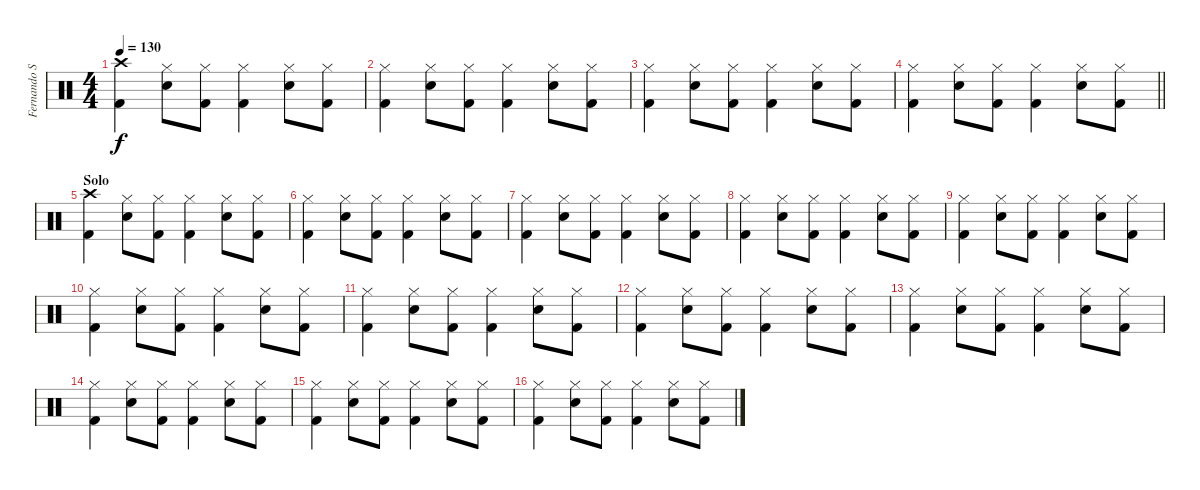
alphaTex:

\track ("Fernando Scarcella" "Fernando S") {instrument percussion}
\staff {score}
\articulation defaults
\ts (4 4)
\tempo 130
\clef neutral
\ks c
("Crash high (hit)" "Kick (hit) 2").4{dy f} ("Hi-Hat (closed)" "Snare (hit) 2").8 ("Hi-Hat (closed)" "Kick (hit) 2").8 ("Hi-Hat (closed)" "Kick (hit) 2").4 ("Hi-Hat (closed)" "Snare (hit) 2").8 ("Hi-Hat (closed)" "Kick (hit) 2").8 |
("Hi-Hat (closed)" "Kick (hit) 2").4 ("Hi-Hat (closed)" "Snare (hit) 2").8 ("Hi-Hat (closed)" "Kick (hit) 2").8 ("Hi-Hat (closed)" "Kick (hit) 2").4 ("Hi-Hat (closed)" "Snare (hit) 2").8 ("Hi-Hat (closed)" "Kick (hit) 2").8 |
("Hi-Hat (closed)" "Kick (hit) 2").4 ("Hi-Hat (closed)" "Snare (hit) 2").8 ("Hi-Hat (closed)" "Kick (hit) 2").8 ("Hi-Hat (closed)" "Kick (hit) 2").4 ("Hi-Hat (closed)" "Snare (hit) 2").8 ("Hi-Hat (closed)" "Kick (hit) 2").8 |
\barLineRight lightlight
("Hi-Hat (closed)" "Kick (hit) 2").4 ("Hi-Hat (closed)" "Snare (hit) 2").8 ("Hi-Hat (closed)" "Kick (hit) 2").8 ("Hi-Hat (closed)" "Kick (hit) 2").4 ("Hi-Hat (closed)" "Snare (hit) 2").8 ("Hi-Hat (closed)" "Kick (hit) 2").8 |
\section ("" "Solo ")
("Crash high (hit)" "Kick (hit) 2").4 ("Hi-Hat (closed)" "Snare (hit) 2").8 ("Hi-Hat (closed)" "Kick (hit) 2").8 ("Hi-Hat (closed)" "Kick (hit) 2").4 ("Hi-Hat (closed)" "Snare (hit) 2").8 ("Hi-Hat (closed)" "Kick (hit) 2").8 |
("Hi-Hat (closed)" "Kick (hit) 2").4 ("Hi-Hat (closed)" "Snare (hit) 2").8 ("Hi-Hat (closed)" "Kick (hit) 2").8 ("Hi-Hat (closed)" "Kick (hit) 2").4 ("Hi-Hat (closed)" "Snare (hit) 2").8 ("Hi-Hat (closed)" "Kick (hit) 2").8 |
("Hi-Hat (closed)" "Kick (hit) 2").4 ("Hi-Hat (closed)" "Snare (hit) 2").8 ("Hi-Hat (closed)" "Kick (hit) 2").8 ("Hi-Hat (closed)" "Kick (hit) 2").4 ("Hi-Hat (closed)" "Snare (hit) 2").8 ("Hi-Hat (closed)" "Kick (hit) 2").8 |
("Hi-Hat (closed)" "Kick (hit) 2").4 ("Hi-Hat (closed)" "Snare (hit) 2").8 ("Hi-Hat (closed)" "Kick (hit) 2").8 ("Hi-Hat (closed)" "Kick (hit) 2").4 ("Hi-Hat (closed)" "Snare (hit) 2").8 ("Hi-Hat (closed)" "Kick (hit) 2").8 |
("Hi-Hat (closed)" "Kick (hit) 2").4 ("Hi-Hat (closed)" "Snare (hit) 2").8 ("Hi-Hat (closed)" "Kick (hit) 2").8 ("Hi-Hat (closed)" "Kick (hit) 2").4 ("Hi-Hat (closed)" "Snare (hit) 2").8 ("Hi-Hat (closed)" "Kick (hit) 2").8 |
("Hi-Hat (closed)" "Kick (hit) 2").4 ("Hi-Hat (closed)" "Snare (hit) 2").8 ("Hi-Hat (closed)" "Kick (hit) 2").8 ("Hi-Hat (closed)" "Kick (hit) 2").4 ("Hi-Hat (closed)" "Snare (hit) 2").8 ("Hi-Hat (closed)" "Kick (hit) 2").8 |
("Hi-Hat (closed)" "Kick (hit) 2").4 ("Hi-Hat (closed)" "Snare (hit) 2").8 ("Hi-Hat (closed)" "Kick (hit) 2").8 ("Hi-Hat (closed)" "Kick (hit) 2").4 ("Hi-Hat (closed)" "Snare (hit) 2").8 ("Hi-Hat (closed)" "Kick (hit) 2").8 |
("Hi-Hat (closed)" "Kick (hit) 2").4 ("Hi-Hat (closed)" "Snare (hit) 2").8 ("Hi-Hat (closed)" "Kick (hit) 2").8 ("Hi-Hat (closed)" "Kick (hit) 2").4 ("Hi-Hat (closed)" "Snare (hit) 2").8 ("Hi-Hat (closed)" "Kick (hit) 2").8 |
("Hi-Hat (closed)" "Kick (hit) 2").4 ("Hi-Hat (closed)" "Snare (hit) 2").8 ("Hi-Hat (closed)" "Kick (hit) 2").8 ("Hi-Hat (closed)" "Kick (hit) 2").4 ("Hi-Hat (closed)" "Snare (hit) 2").8 ("Hi-Hat (closed)" "Kick (hit) 2").8 |
("Hi-Hat (closed)" "Kick (hit) 2").4 ("Hi-Hat (closed)" "Snare (hit) 2").8 ("Hi-Hat (closed)" "Kick (hit) 2").8 ("Hi-Hat (closed)" "Kick (hit) 2").4 ("Hi-Hat (closed)" "Snare (hit) 2").8 ("Hi-Hat (closed)" "Kick (hit) 2").8 |
("Hi-Hat (closed)" "Kick (hit) 2").4 ("Hi-Hat (closed)" "Snare (hit) 2").8 ("Hi-Hat (closed)" "Kick (hit) 2").8 ("Hi-Hat (closed)" "Kick (hit) 2").4 ("Hi-Hat (closed)" "Snare (hit) 2").8 ("Hi-Hat (closed)" "Kick (hit) 2").8 |
("Hi-Hat (closed)" "Kick (hit) 2").4 ("Hi-Hat (closed)" "Snare (hit) 2").8 ("Hi-Hat (closed)" "Kick (hit) 2").8 ("Hi-Hat (closed)" "Kick (hit) 2").4 ("Hi-Hat (closed)" "Snare (hit) 2").8 ("Hi-Hat (closed)" "Kick (hit) 2").8
